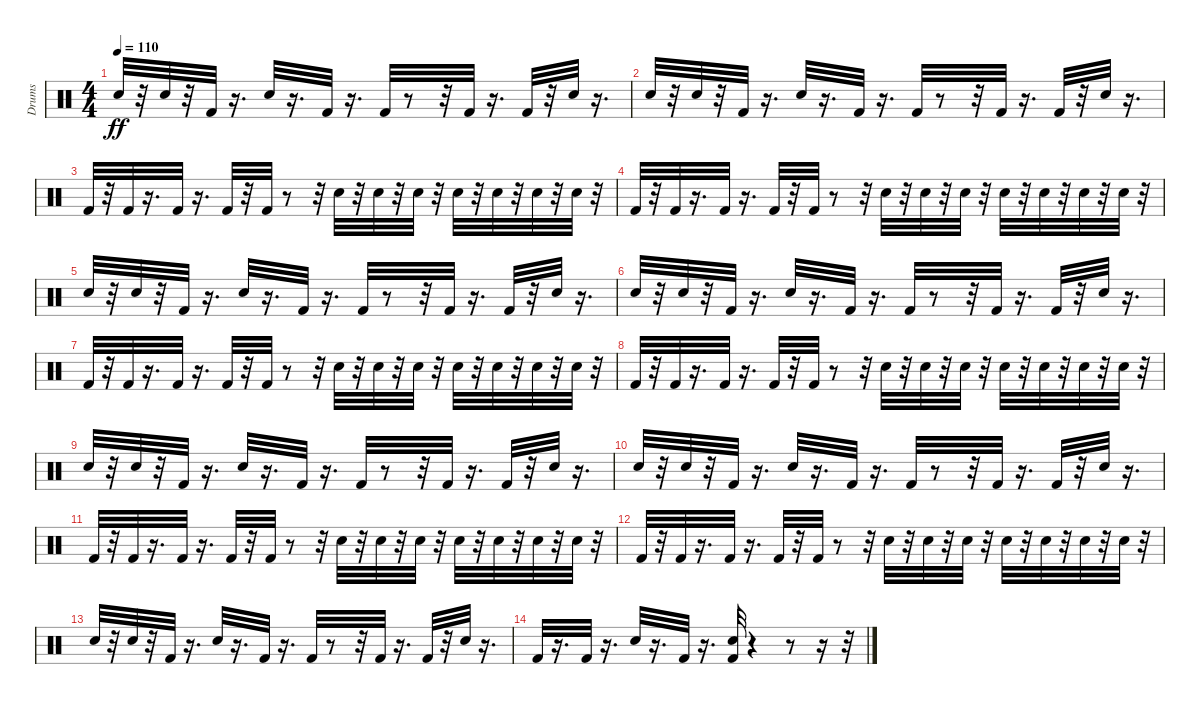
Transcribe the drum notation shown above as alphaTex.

\track ("Drums" "Drums") {instrument percussion}
\staff {score}
\articulation defaults
\ts (4 4)
\tempo 110
\clef neutral
\ks c "Electric Snare (hit)".32{dy ff}
r.32 "Electric Snare (hit)".32 r.32 "Kick (hit) 2".32 r.16{d} "Electric Snare (hit)".32 r.16{d} "Kick (hit) 2".32 r.16{d} "Kick (hit) 2".32 r.8 r.32 "Kick (hit) 2".32 r.16{d} "Kick (hit) 2".32 r.32 "Electric Snare (hit)".32 r.16{d} |
"Electric Snare (hit)".32 r.32 "Electric Snare (hit)".32 r.32 "Kick (hit) 2".32 r.16{d} "Electric Snare (hit)".32 r.16{d} "Kick (hit) 2".32 r.16{d} "Kick (hit) 2".32 r.8 r.32 "Kick (hit) 2".32 r.16{d} "Kick (hit) 2".32 r.32 "Electric Snare (hit)".32 r.16{d} |
"Kick (hit) 2".32 r.32 "Kick (hit) 2".32 r.16{d} "Kick (hit) 2".32 r.16{d} "Kick (hit) 2".32 r.32 "Kick (hit) 2".32 r.8 r.32 "Electric Snare (hit)".32 r.32 "Electric Snare (hit)".32 r.32 "Electric Snare (hit)".32 r.32 "Electric Snare (hit)".32 r.32 "Electric Snare (hit)".32 r.32 "Electric Snare (hit)".32 r.32 "Electric Snare (hit)".32 r.32 |
"Kick (hit) 2".32 r.32 "Kick (hit) 2".32 r.16{d} "Kick (hit) 2".32 r.16{d} "Kick (hit) 2".32 r.32 "Kick (hit) 2".32 r.8 r.32 "Electric Snare (hit)".32 r.32 "Electric Snare (hit)".32 r.32 "Electric Snare (hit)".32 r.32 "Electric Snare (hit)".32 r.32 "Electric Snare (hit)".32 r.32 "Electric Snare (hit)".32 r.32 "Electric Snare (hit)".32 r.32 |
"Electric Snare (hit)".32 r.32 "Electric Snare (hit)".32 r.32 "Kick (hit) 2".32 r.16{d} "Electric Snare (hit)".32 r.16{d} "Kick (hit) 2".32 r.16{d} "Kick (hit) 2".32 r.8 r.32 "Kick (hit) 2".32 r.16{d} "Kick (hit) 2".32 r.32 "Electric Snare (hit)".32 r.16{d} |
"Electric Snare (hit)".32 r.32 "Electric Snare (hit)".32 r.32 "Kick (hit) 2".32 r.16{d} "Electric Snare (hit)".32 r.16{d} "Kick (hit) 2".32 r.16{d} "Kick (hit) 2".32 r.8 r.32 "Kick (hit) 2".32 r.16{d} "Kick (hit) 2".32 r.32 "Electric Snare (hit)".32 r.16{d} |
"Kick (hit) 2".32 r.32 "Kick (hit) 2".32 r.16{d} "Kick (hit) 2".32 r.16{d} "Kick (hit) 2".32 r.32 "Kick (hit) 2".32 r.8 r.32 "Electric Snare (hit)".32 r.32 "Electric Snare (hit)".32 r.32 "Electric Snare (hit)".32 r.32 "Electric Snare (hit)".32 r.32 "Electric Snare (hit)".32 r.32 "Electric Snare (hit)".32 r.32 "Electric Snare (hit)".32 r.32 |
"Kick (hit) 2".32 r.32 "Kick (hit) 2".32 r.16{d} "Kick (hit) 2".32 r.16{d} "Kick (hit) 2".32 r.32 "Kick (hit) 2".32 r.8 r.32 "Electric Snare (hit)".32 r.32 "Electric Snare (hit)".32 r.32 "Electric Snare (hit)".32 r.32 "Electric Snare (hit)".32 r.32 "Electric Snare (hit)".32 r.32 "Electric Snare (hit)".32 r.32 "Electric Snare (hit)".32 r.32 |
"Electric Snare (hit)".32 r.32 "Electric Snare (hit)".32 r.32 "Kick (hit) 2".32 r.16{d} "Electric Snare (hit)".32 r.16{d} "Kick (hit) 2".32 r.16{d} "Kick (hit) 2".32 r.8 r.32 "Kick (hit) 2".32 r.16{d} "Kick (hit) 2".32 r.32 "Electric Snare (hit)".32 r.16{d} |
"Electric Snare (hit)".32 r.32 "Electric Snare (hit)".32 r.32 "Kick (hit) 2".32 r.16{d} "Electric Snare (hit)".32 r.16{d} "Kick (hit) 2".32 r.16{d} "Kick (hit) 2".32 r.8 r.32 "Kick (hit) 2".32 r.16{d} "Kick (hit) 2".32 r.32 "Electric Snare (hit)".32 r.16{d} |
"Kick (hit) 2".32 r.32 "Kick (hit) 2".32 r.16{d} "Kick (hit) 2".32 r.16{d} "Kick (hit) 2".32 r.32 "Kick (hit) 2".32 r.8 r.32 "Electric Snare (hit)".32 r.32 "Electric Snare (hit)".32 r.32 "Electric Snare (hit)".32 r.32 "Electric Snare (hit)".32 r.32 "Electric Snare (hit)".32 r.32 "Electric Snare (hit)".32 r.32 "Electric Snare (hit)".32 r.32 |
"Kick (hit) 2".32 r.32 "Kick (hit) 2".32 r.16{d} "Kick (hit) 2".32 r.16{d} "Kick (hit) 2".32 r.32 "Kick (hit) 2".32 r.8 r.32 "Electric Snare (hit)".32 r.32 "Electric Snare (hit)".32 r.32 "Electric Snare (hit)".32 r.32 "Electric Snare (hit)".32 r.32 "Electric Snare (hit)".32 r.32 "Electric Snare (hit)".32 r.32 "Electric Snare (hit)".32 r.32 |
"Electric Snare (hit)".32 r.32 "Electric Snare (hit)".32 r.32 "Kick (hit) 2".32 r.16{d} "Electric Snare (hit)".32 r.16{d} "Kick (hit) 2".32 r.16{d} "Kick (hit) 2".32 r.8 r.32 "Kick (hit) 2".32 r.16{d} "Kick (hit) 2".32 r.32 "Electric Snare (hit)".32 r.16{d} |
"Kick (hit) 2".32 r.16{d} "Kick (hit) 2".32 r.16{d} "Electric Snare (hit)".32 r.16{d} "Kick (hit) 2".32 r.16{d} ("Kick (hit) 2" "Electric Snare (hit)").32 r.4 r.8 r.16 r.32
